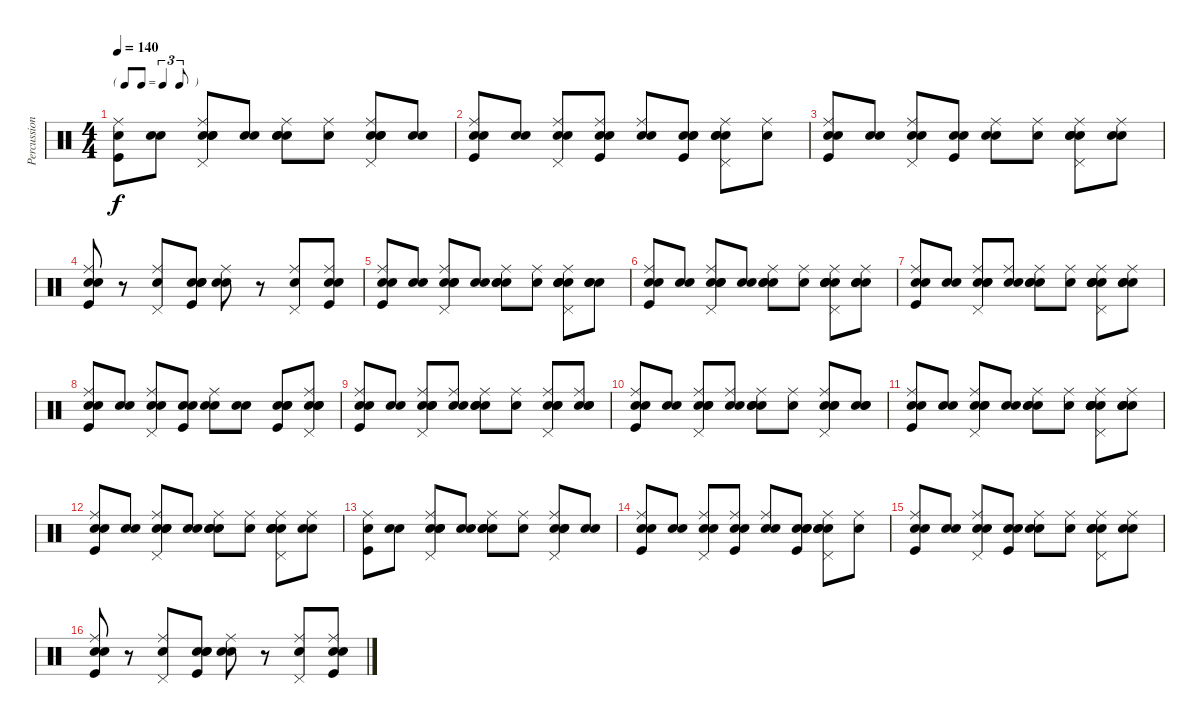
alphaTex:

\track ("Percussions" "Percussion") {instrument percussion}
\staff {score}
\articulation defaults
\ts (4 4)
\tf triplet8th
\tempo 140
\clef neutral
\ks c
("Kick (hit)" "Electric Snare (hit)" "Ride (middle)").8{dy f} ("Snare (hit)" "Electric Snare (hit)").8 ("Snare (hit)" "Snare (hit) 2" "Electric Snare (hit)" "Ride (middle)" "Pedal Hi-Hat (hit)").8 ("Snare (hit)" "Snare (hit) 2").8 ("Snare (hit)" "Snare (hit) 2" "Electric Snare (hit)" "Ride (middle)").8 ("Snare (hit)" "Ride (middle)").8 ("Snare (hit)" "Snare (hit) 2" "Electric Snare (hit)" "Ride (middle)" "Pedal Hi-Hat (hit)").8 ("Snare (hit)" "Snare (hit) 2").8 |
("Snare (hit)" "Kick (hit)" "Electric Snare (hit)" "Ride (middle)").8 ("Snare (hit)" "Electric Snare (hit)").8 ("Snare (hit)" "Snare (hit) 2" "Ride (middle)" "Pedal Hi-Hat (hit)").8 ("Snare (hit)" "Kick (hit)" "Snare (hit) 2" "Ride (middle)").8 ("Snare (hit)" "Electric Snare (hit)" "Ride (middle)").8 ("Snare (hit)" "Kick (hit)" "Electric Snare (hit)" "Hand Clap (hit)").8 ("Snare (hit)" "Electric Snare (hit)" "Ride (middle)" "Pedal Hi-Hat (hit)" "Hand Clap (hit)").8 ("Snare (hit)" "Ride (middle)").8 |
("Snare (hit)" "Kick (hit)" "Electric Snare (hit)" "Ride (middle)").8 ("Snare (hit)" "Electric Snare (hit)").8 ("Snare (hit)" "Snare (hit) 2" "Ride (middle)" "Pedal Hi-Hat (hit)").8 ("Snare (hit)" "Kick (hit)" "Hand Clap (hit)").8 ("Snare (hit)" "Electric Snare (hit)" "Ride (middle)").8 ("Snare (hit)" "Ride (middle)").8 ("Snare (hit)" "Snare (hit) 2" "Ride (middle)" "Pedal Hi-Hat (hit)" "Hand Clap (hit)").8 ("Snare (hit)" "Snare (hit) 2" "Ride (middle)").8 |
("Snare (hit)" "Kick (hit)" "Electric Snare (hit)" "Ride (middle)").8 r.8 ("Snare (hit) 2" "Ride (middle)" "Pedal Hi-Hat (hit)").8 ("Snare (hit)" "Kick (hit)" "Snare (hit) 2" "Hand Clap (hit)").8 ("Snare (hit)" "Electric Snare (hit)" "Ride (middle)").8 r.8 ("Snare (hit) 2" "Ride (middle)" "Pedal Hi-Hat (hit)").8 ("Snare (hit)" "Kick (hit)" "Ride (middle)" "Hand Clap (hit)").8 |
("Snare (hit)" "Kick (hit)" "Electric Snare (hit)" "Ride (middle)").8 ("Snare (hit)" "Electric Snare (hit)").8 ("Snare (hit)" "Snare (hit) 2" "Electric Snare (hit)" "Ride (middle)" "Pedal Hi-Hat (hit)").8 ("Snare (hit)" "Snare (hit) 2").8 ("Snare (hit)" "Snare (hit) 2" "Electric Snare (hit)" "Ride (middle)").8 ("Snare (hit)" "Ride (middle)").8 ("Snare (hit)" "Snare (hit) 2" "Electric Snare (hit)" "Ride (middle)" "Pedal Hi-Hat (hit)" "Hand Clap (hit)").8 ("Snare (hit)" "Snare (hit) 2" "Hand Clap (hit)").8 |
("Snare (hit)" "Kick (hit)" "Electric Snare (hit)" "Ride (middle)").8 ("Snare (hit)" "Electric Snare (hit)").8 ("Snare (hit)" "Snare (hit) 2" "Electric Snare (hit)" "Ride (middle)" "Pedal Hi-Hat (hit)").8 ("Snare (hit)" "Snare (hit) 2").8 ("Snare (hit)" "Snare (hit) 2" "Electric Snare (hit)" "Ride (middle)").8 ("Snare (hit)" "Ride (middle)").8 ("Snare (hit)" "Snare (hit) 2" "Electric Snare (hit)" "Ride (middle)" "Pedal Hi-Hat (hit)" "Hand Clap (hit)").8 ("Snare (hit)" "Snare (hit) 2" "Ride (middle)" "Hand Clap (hit)").8 |
("Snare (hit)" "Kick (hit)" "Electric Snare (hit)" "Ride (middle)").8 ("Snare (hit)" "Electric Snare (hit)").8 ("Snare (hit)" "Snare (hit) 2" "Electric Snare (hit)" "Ride (middle)" "Pedal Hi-Hat (hit)").8 ("Snare (hit)" "Snare (hit) 2" "Ride (middle)").8 ("Snare (hit)" "Snare (hit) 2" "Electric Snare (hit)" "Ride (middle)").8 ("Snare (hit)" "Ride (middle)").8 ("Snare (hit)" "Snare (hit) 2" "Electric Snare (hit)" "Ride (middle)" "Pedal Hi-Hat (hit)" "Hand Clap (hit)").8 ("Snare (hit)" "Snare (hit) 2" "Ride (middle)" "Hand Clap (hit)").8 |
("Snare (hit)" "Kick (hit)" "Electric Snare (hit)" "Ride (middle)").8 ("Snare (hit)" "Electric Snare (hit)").8 ("Snare (hit)" "Snare (hit) 2" "Ride (middle)" "Pedal Hi-Hat (hit)").8 ("Snare (hit)" "Kick (hit)" "Hand Clap (hit)").8 ("Snare (hit)" "Electric Snare (hit)" "Ride (middle)").8 ("Snare (hit)" "Snare (hit) 2").8 ("Snare (hit)" "Kick (hit)" "Electric Snare (hit)" "Hand Clap (hit)").8 ("Snare (hit)" "Electric Snare (hit)" "Ride (middle)" "Pedal Hi-Hat (hit)" "Hand Clap (hit)").8 |
("Snare (hit)" "Kick (hit)" "Electric Snare (hit)" "Ride (middle)").8 ("Snare (hit)" "Electric Snare (hit)").8 ("Snare (hit)" "Snare (hit) 2" "Electric Snare (hit)" "Ride (middle)" "Pedal Hi-Hat (hit)").8 ("Snare (hit)" "Snare (hit) 2" "Ride (middle)").8 ("Snare (hit)" "Snare (hit) 2" "Electric Snare (hit)" "Ride (middle)").8 ("Snare (hit)" "Ride (middle)").8 ("Snare (hit)" "Snare (hit) 2" "Electric Snare (hit)" "Ride (middle)" "Pedal Hi-Hat (hit)").8 ("Snare (hit)" "Snare (hit) 2" "Ride (middle)" "Hand Clap (hit)").8 |
("Snare (hit)" "Kick (hit)" "Electric Snare (hit)" "Ride (middle)").8 ("Snare (hit)" "Electric Snare (hit)").8 ("Snare (hit)" "Snare (hit) 2" "Electric Snare (hit)" "Ride (middle)" "Pedal Hi-Hat (hit)").8 ("Snare (hit)" "Snare (hit) 2" "Ride (middle)").8 ("Snare (hit)" "Snare (hit) 2" "Electric Snare (hit)" "Ride (middle)").8 ("Snare (hit)" "Ride (middle)").8 ("Snare (hit)" "Snare (hit) 2" "Electric Snare (hit)" "Ride (middle)" "Pedal Hi-Hat (hit)").8 ("Snare (hit)" "Snare (hit) 2" "Hand Clap (hit)").8 |
("Snare (hit)" "Kick (hit)" "Electric Snare (hit)" "Ride (middle)").8 ("Snare (hit)" "Electric Snare (hit)").8 ("Snare (hit)" "Snare (hit) 2" "Electric Snare (hit)" "Ride (middle)" "Pedal Hi-Hat (hit)").8 ("Snare (hit)" "Snare (hit) 2").8 ("Snare (hit)" "Snare (hit) 2" "Electric Snare (hit)" "Ride (middle)").8 ("Snare (hit)" "Ride (middle)").8 ("Snare (hit)" "Snare (hit) 2" "Electric Snare (hit)" "Ride (middle)" "Pedal Hi-Hat (hit)" "Hand Clap (hit)").8 ("Snare (hit)" "Snare (hit) 2" "Ride (middle)" "Hand Clap (hit)").8 |
("Snare (hit)" "Kick (hit)" "Electric Snare (hit)" "Ride (middle)").8 ("Snare (hit)" "Electric Snare (hit)").8 ("Snare (hit)" "Snare (hit) 2" "Electric Snare (hit)" "Ride (middle)" "Pedal Hi-Hat (hit)").8 ("Snare (hit)" "Snare (hit) 2").8 ("Snare (hit)" "Snare (hit) 2" "Electric Snare (hit)" "Ride (middle)").8 ("Snare (hit)" "Ride (middle)").8 ("Snare (hit)" "Snare (hit) 2" "Electric Snare (hit)" "Ride (middle)" "Pedal Hi-Hat (hit)" "Hand Clap (hit)").8 ("Snare (hit)" "Snare (hit) 2" "Ride (middle)").8 |
("Kick (hit)" "Electric Snare (hit)" "Ride (middle)").8 ("Snare (hit)" "Electric Snare (hit)").8 ("Snare (hit)" "Snare (hit) 2" "Electric Snare (hit)" "Ride (middle)" "Pedal Hi-Hat (hit)").8 ("Snare (hit)" "Snare (hit) 2").8 ("Snare (hit)" "Snare (hit) 2" "Electric Snare (hit)" "Ride (middle)").8 ("Snare (hit)" "Ride (middle)").8 ("Snare (hit)" "Snare (hit) 2" "Electric Snare (hit)" "Ride (middle)" "Pedal Hi-Hat (hit)").8 ("Snare (hit)" "Snare (hit) 2").8 |
("Snare (hit)" "Kick (hit)" "Electric Snare (hit)" "Ride (middle)").8 ("Snare (hit)" "Electric Snare (hit)").8 ("Snare (hit)" "Snare (hit) 2" "Ride (middle)" "Pedal Hi-Hat (hit)").8 ("Snare (hit)" "Kick (hit)" "Snare (hit) 2" "Ride (middle)").8 ("Snare (hit)" "Electric Snare (hit)" "Ride (middle)").8 ("Snare (hit)" "Kick (hit)" "Electric Snare (hit)" "Hand Clap (hit)").8 ("Snare (hit)" "Electric Snare (hit)" "Ride (middle)" "Pedal Hi-Hat (hit)" "Hand Clap (hit)").8 ("Snare (hit)" "Ride (middle)").8 |
("Snare (hit)" "Kick (hit)" "Electric Snare (hit)" "Ride (middle)").8 ("Snare (hit)" "Electric Snare (hit)").8 ("Snare (hit)" "Snare (hit) 2" "Ride (middle)" "Pedal Hi-Hat (hit)").8 ("Snare (hit)" "Kick (hit)" "Hand Clap (hit)").8 ("Snare (hit)" "Electric Snare (hit)" "Ride (middle)").8 ("Snare (hit)" "Ride (middle)").8 ("Snare (hit)" "Snare (hit) 2" "Ride (middle)" "Pedal Hi-Hat (hit)" "Hand Clap (hit)").8 ("Snare (hit)" "Snare (hit) 2" "Ride (middle)").8 |
("Snare (hit)" "Kick (hit)" "Electric Snare (hit)" "Ride (middle)").8 r.8 ("Snare (hit) 2" "Ride (middle)" "Pedal Hi-Hat (hit)").8 ("Snare (hit)" "Kick (hit)" "Snare (hit) 2" "Hand Clap (hit)").8 ("Snare (hit)" "Electric Snare (hit)" "Ride (middle)").8 r.8 ("Snare (hit) 2" "Ride (middle)" "Pedal Hi-Hat (hit)").8 ("Snare (hit)" "Kick (hit)" "Ride (middle)" "Hand Clap (hit)").8
